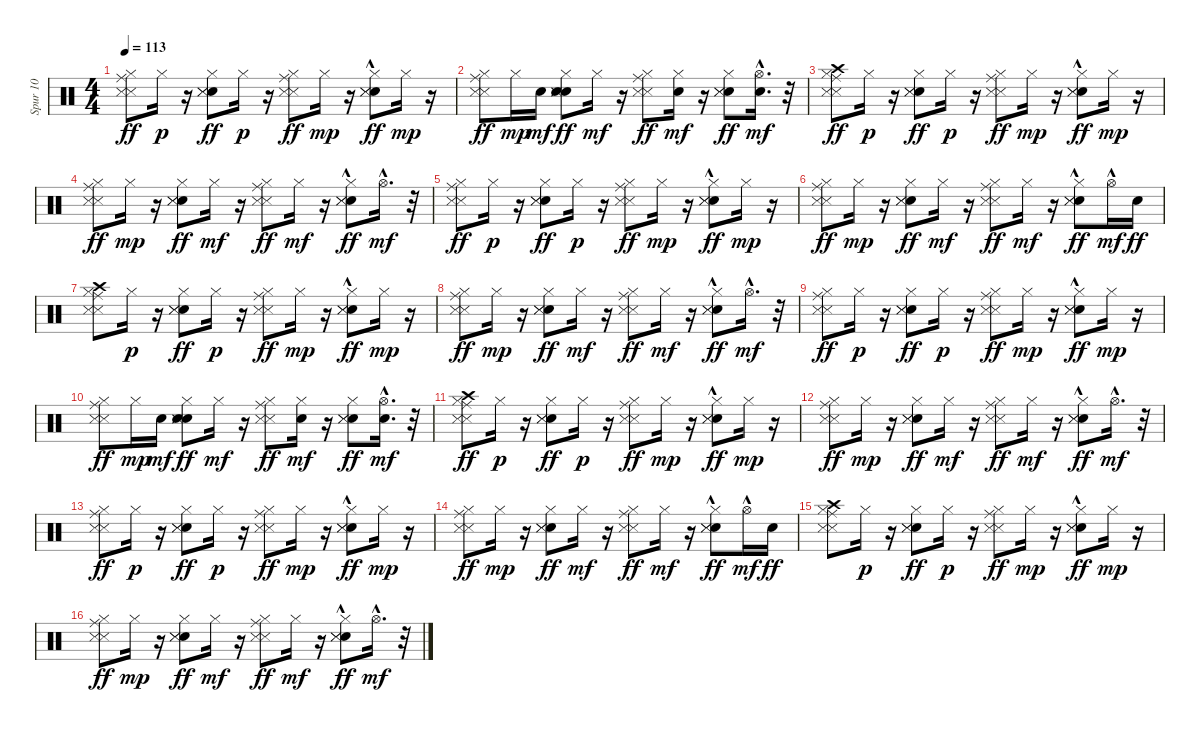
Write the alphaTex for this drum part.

\track ("Spur 10" "Spur 10") {instrument percussion}
\staff {score}
\articulation defaults
\ts (4 4)
\tempo 113
\clef neutral
\ks c
("Ride (middle)" "Hi-Hat (closed)" "Snare (side stick) 3" "Snare (side stick) 3").8{dy ff} "Hi-Hat (closed)".16{dy p} r.16 ("Hi-Hat (closed)" "Metronome (bell)" "Snare (side stick) 3" "Snare (side stick) 3").8{dy ff} "Hi-Hat (closed)".16{dy p} r.16 ("Hi-Hat (closed)" "Ride (middle)" "Snare (side stick) 3" "Snare (side stick) 3").8{dy ff} "Hi-Hat (closed)".16{dy mp} r.16 ("Hi-Hat (closed)" "Metronome (bell)"{hac} "Snare (side stick) 3" "Snare (side stick) 3").8{dy ff} "Hi-Hat (closed)".16{dy mp} r.16 |
("Hi-Hat (closed)" "Ride (middle)" "Snare (side stick) 3" "Snare (side stick) 3").8{dy ff} "Hi-Hat (closed)".16{dy mp} "Metronome (bell)".16{dy mf} ("Hi-Hat (closed)" "Metronome (bell)" "Metronome (bell)" "Snare (side stick) 3" "Snare (side stick) 3").8{dy ff} "Hi-Hat (closed)".16{dy mf} r.16 ("Hi-Hat (closed)" "Ride (middle)" "Snare (side stick) 3" "Snare (side stick) 3").8{dy ff} ("Metronome (bell)" "Hi-Hat (closed)").16{dy mf} r.16 ("Metronome (bell)" "Snare (side stick) 3" "Snare (side stick) 3" "Hi-Hat (closed)").8{dy ff} ("Metronome (bell)" "Hi-Hat (open)"{hac}).16{d dy mf} r.32 |
("Ride (middle)" "Crash high (hit)" "Hi-Hat (closed)" "Snare (side stick) 3" "Snare (side stick) 3").8{dy ff} "Hi-Hat (closed)".16{dy p} r.16 ("Hi-Hat (closed)" "Metronome (bell)" "Snare (side stick) 3" "Snare (side stick) 3").8{dy ff} "Hi-Hat (closed)".16{dy p} r.16 ("Hi-Hat (closed)" "Ride (middle)" "Snare (side stick) 3" "Snare (side stick) 3").8{dy ff} "Hi-Hat (closed)".16{dy mp} r.16 ("Hi-Hat (closed)" "Metronome (bell)"{hac} "Snare (side stick) 3" "Snare (side stick) 3").8{dy ff} "Hi-Hat (closed)".16{dy mp} r.16 |
("Hi-Hat (closed)" "Ride (middle)" "Snare (side stick) 3" "Snare (side stick) 3").8{dy ff} "Hi-Hat (closed)".16{dy mp} r.16 ("Hi-Hat (closed)" "Metronome (bell)" "Snare (side stick) 3" "Snare (side stick) 3").8{dy ff} "Hi-Hat (closed)".16{dy mf} r.16 ("Hi-Hat (closed)" "Ride (middle)" "Snare (side stick) 3" "Snare (side stick) 3").8{dy ff} "Hi-Hat (closed)".16{dy mf} r.16 ("Metronome (bell)"{hac} "Snare (side stick) 3" "Snare (side stick) 3" "Hi-Hat (closed)").8{dy ff} "Hi-Hat (open)"{hac}.16{d dy mf} r.32 |
("Ride (middle)" "Hi-Hat (closed)" "Snare (side stick) 3" "Snare (side stick) 3").8{dy ff} "Hi-Hat (closed)".16{dy p} r.16 ("Hi-Hat (closed)" "Metronome (bell)" "Snare (side stick) 3" "Snare (side stick) 3").8{dy ff} "Hi-Hat (closed)".16{dy p} r.16 ("Hi-Hat (closed)" "Ride (middle)" "Snare (side stick) 3" "Snare (side stick) 3").8{dy ff} "Hi-Hat (closed)".16{dy mp} r.16 ("Hi-Hat (closed)" "Metronome (bell)"{hac} "Snare (side stick) 3" "Snare (side stick) 3").8{dy ff} "Hi-Hat (closed)".16{dy mp} r.16 |
("Hi-Hat (closed)" "Ride (middle)" "Snare (side stick) 3" "Snare (side stick) 3").8{dy ff} "Hi-Hat (closed)".16{dy mp} r.16 ("Hi-Hat (closed)" "Metronome (bell)" "Snare (side stick) 3" "Snare (side stick) 3").8{dy ff} "Hi-Hat (closed)".16{dy mf} r.16 ("Hi-Hat (closed)" "Ride (middle)" "Snare (side stick) 3" "Snare (side stick) 3").8{dy ff} "Hi-Hat (closed)".16{dy mf} r.16 ("Metronome (bell)"{hac} "Snare (side stick) 3" "Snare (side stick) 3" "Hi-Hat (closed)").8{dy ff} "Hi-Hat (open)"{hac}.16{dy mf} "Metronome (bell)".16{dy ff} |
("Ride (middle)" "Hi-Hat (closed)" "Snare (side stick) 3" "Snare (side stick) 3" "Crash high (hit)").8 "Hi-Hat (closed)".16{dy p} r.16 ("Hi-Hat (closed)" "Metronome (bell)" "Snare (side stick) 3" "Snare (side stick) 3").8{dy ff} "Hi-Hat (closed)".16{dy p} r.16 ("Hi-Hat (closed)" "Ride (middle)" "Snare (side stick) 3" "Snare (side stick) 3").8{dy ff} "Hi-Hat (closed)".16{dy mp} r.16 ("Hi-Hat (closed)" "Metronome (bell)"{hac} "Snare (side stick) 3" "Snare (side stick) 3").8{dy ff} "Hi-Hat (closed)".16{dy mp} r.16 |
("Hi-Hat (closed)" "Ride (middle)" "Snare (side stick) 3" "Snare (side stick) 3").8{dy ff} "Hi-Hat (closed)".16{dy mp} r.16 ("Hi-Hat (closed)" "Metronome (bell)" "Snare (side stick) 3" "Snare (side stick) 3").8{dy ff} "Hi-Hat (closed)".16{dy mf} r.16 ("Hi-Hat (closed)" "Ride (middle)" "Snare (side stick) 3" "Snare (side stick) 3").8{dy ff} "Hi-Hat (closed)".16{dy mf} r.16 ("Metronome (bell)"{hac} "Snare (side stick) 3" "Snare (side stick) 3" "Hi-Hat (closed)").8{dy ff} "Hi-Hat (open)"{hac}.16{d dy mf} r.32 |
("Ride (middle)" "Hi-Hat (closed)" "Snare (side stick) 3" "Snare (side stick) 3").8{dy ff} "Hi-Hat (closed)".16{dy p} r.16 ("Hi-Hat (closed)" "Metronome (bell)" "Snare (side stick) 3" "Snare (side stick) 3").8{dy ff} "Hi-Hat (closed)".16{dy p} r.16 ("Hi-Hat (closed)" "Ride (middle)" "Snare (side stick) 3" "Snare (side stick) 3").8{dy ff} "Hi-Hat (closed)".16{dy mp} r.16 ("Hi-Hat (closed)" "Metronome (bell)"{hac} "Snare (side stick) 3" "Snare (side stick) 3").8{dy ff} "Hi-Hat (closed)".16{dy mp} r.16 |
("Hi-Hat (closed)" "Ride (middle)" "Snare (side stick) 3" "Snare (side stick) 3").8{dy ff} "Hi-Hat (closed)".16{dy mp} "Metronome (bell)".16{dy mf} ("Hi-Hat (closed)" "Metronome (bell)" "Metronome (bell)" "Snare (side stick) 3" "Snare (side stick) 3").8{dy ff} "Hi-Hat (closed)".16{dy mf} r.16 ("Hi-Hat (closed)" "Ride (middle)" "Snare (side stick) 3" "Snare (side stick) 3").8{dy ff} ("Metronome (bell)" "Hi-Hat (closed)").16{dy mf} r.16 ("Metronome (bell)" "Snare (side stick) 3" "Snare (side stick) 3" "Hi-Hat (closed)").8{dy ff} ("Metronome (bell)" "Hi-Hat (open)"{hac}).16{d dy mf} r.32 |
("Ride (middle)" "Crash high (hit)" "Hi-Hat (closed)" "Snare (side stick) 3" "Snare (side stick) 3").8{dy ff} "Hi-Hat (closed)".16{dy p} r.16 ("Hi-Hat (closed)" "Metronome (bell)" "Snare (side stick) 3" "Snare (side stick) 3").8{dy ff} "Hi-Hat (closed)".16{dy p} r.16 ("Hi-Hat (closed)" "Ride (middle)" "Snare (side stick) 3" "Snare (side stick) 3").8{dy ff} "Hi-Hat (closed)".16{dy mp} r.16 ("Hi-Hat (closed)" "Metronome (bell)"{hac} "Snare (side stick) 3" "Snare (side stick) 3").8{dy ff} "Hi-Hat (closed)".16{dy mp} r.16 |
("Hi-Hat (closed)" "Ride (middle)" "Snare (side stick) 3" "Snare (side stick) 3").8{dy ff} "Hi-Hat (closed)".16{dy mp} r.16 ("Hi-Hat (closed)" "Metronome (bell)" "Snare (side stick) 3" "Snare (side stick) 3").8{dy ff} "Hi-Hat (closed)".16{dy mf} r.16 ("Hi-Hat (closed)" "Ride (middle)" "Snare (side stick) 3" "Snare (side stick) 3").8{dy ff} "Hi-Hat (closed)".16{dy mf} r.16 ("Metronome (bell)"{hac} "Snare (side stick) 3" "Snare (side stick) 3" "Hi-Hat (closed)").8{dy ff} "Hi-Hat (open)"{hac}.16{d dy mf} r.32 |
("Ride (middle)" "Hi-Hat (closed)" "Snare (side stick) 3" "Snare (side stick) 3").8{dy ff} "Hi-Hat (closed)".16{dy p} r.16 ("Hi-Hat (closed)" "Metronome (bell)" "Snare (side stick) 3" "Snare (side stick) 3").8{dy ff} "Hi-Hat (closed)".16{dy p} r.16 ("Hi-Hat (closed)" "Ride (middle)" "Snare (side stick) 3" "Snare (side stick) 3").8{dy ff} "Hi-Hat (closed)".16{dy mp} r.16 ("Hi-Hat (closed)" "Metronome (bell)"{hac} "Snare (side stick) 3" "Snare (side stick) 3").8{dy ff} "Hi-Hat (closed)".16{dy mp} r.16 |
("Hi-Hat (closed)" "Ride (middle)" "Snare (side stick) 3" "Snare (side stick) 3").8{dy ff} "Hi-Hat (closed)".16{dy mp} r.16 ("Hi-Hat (closed)" "Metronome (bell)" "Snare (side stick) 3" "Snare (side stick) 3").8{dy ff} "Hi-Hat (closed)".16{dy mf} r.16 ("Hi-Hat (closed)" "Ride (middle)" "Snare (side stick) 3" "Snare (side stick) 3").8{dy ff} "Hi-Hat (closed)".16{dy mf} r.16 ("Metronome (bell)"{hac} "Snare (side stick) 3" "Snare (side stick) 3" "Hi-Hat (closed)").8{dy ff} "Hi-Hat (open)"{hac}.16{dy mf} "Metronome (bell)".16{dy ff} |
("Ride (middle)" "Hi-Hat (closed)" "Snare (side stick) 3" "Snare (side stick) 3" "Crash high (hit)").8 "Hi-Hat (closed)".16{dy p} r.16 ("Hi-Hat (closed)" "Metronome (bell)" "Snare (side stick) 3" "Snare (side stick) 3").8{dy ff} "Hi-Hat (closed)".16{dy p} r.16 ("Hi-Hat (closed)" "Ride (middle)" "Snare (side stick) 3" "Snare (side stick) 3").8{dy ff} "Hi-Hat (closed)".16{dy mp} r.16 ("Hi-Hat (closed)" "Metronome (bell)"{hac} "Snare (side stick) 3" "Snare (side stick) 3").8{dy ff} "Hi-Hat (closed)".16{dy mp} r.16 |
("Hi-Hat (closed)" "Ride (middle)" "Snare (side stick) 3" "Snare (side stick) 3").8{dy ff} "Hi-Hat (closed)".16{dy mp} r.16 ("Hi-Hat (closed)" "Metronome (bell)" "Snare (side stick) 3" "Snare (side stick) 3").8{dy ff} "Hi-Hat (closed)".16{dy mf} r.16 ("Hi-Hat (closed)" "Ride (middle)" "Snare (side stick) 3" "Snare (side stick) 3").8{dy ff} "Hi-Hat (closed)".16{dy mf} r.16 ("Metronome (bell)"{hac} "Snare (side stick) 3" "Snare (side stick) 3" "Hi-Hat (closed)").8{dy ff} "Hi-Hat (open)"{hac}.16{d dy mf} r.32
